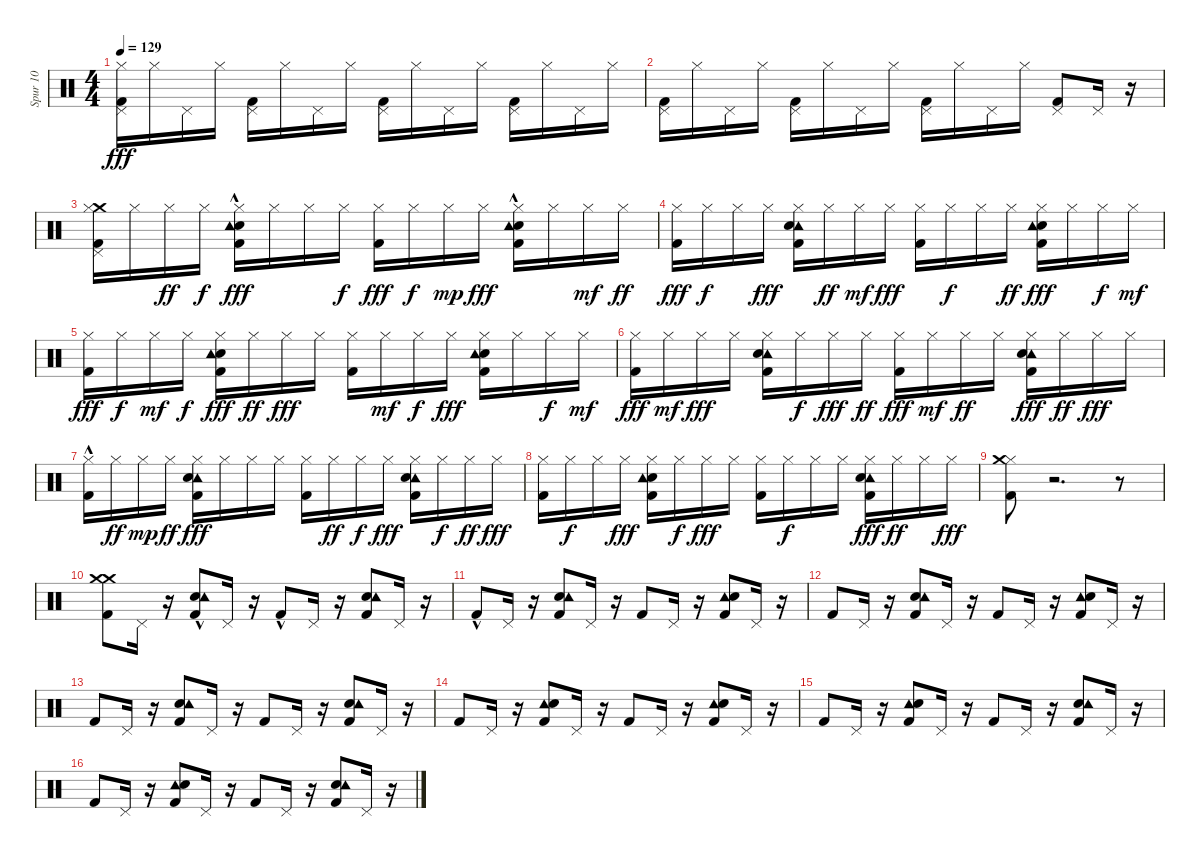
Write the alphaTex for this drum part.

\track ("Spur 10" "Spur 10") {instrument percussion}
\staff {score}
\articulation defaults
\ts (4 4)
\tempo 129
\clef neutral
\ks c
("Hi-Hat (closed)" "Pedal Hi-Hat (hit)" "Kick (hit) 2").16{dy fff} "Hi-Hat (closed)".16 "Pedal Hi-Hat (hit)".16 "Hi-Hat (closed)".16 ("Kick (hit) 2" "Pedal Hi-Hat (hit)").16 "Hi-Hat (closed)".16 "Pedal Hi-Hat (hit)".16 "Hi-Hat (closed)".16 ("Pedal Hi-Hat (hit)" "Kick (hit) 2").16 "Hi-Hat (closed)".16 "Pedal Hi-Hat (hit)".16 "Hi-Hat (closed)".16 ("Pedal Hi-Hat (hit)" "Kick (hit) 2").16 "Hi-Hat (closed)".16 "Pedal Hi-Hat (hit)".16 "Hi-Hat (closed)".16 |
("Pedal Hi-Hat (hit)" "Kick (hit) 2").16 "Hi-Hat (closed)".16 "Pedal Hi-Hat (hit)".16 "Hi-Hat (closed)".16 ("Pedal Hi-Hat (hit)" "Kick (hit) 2").16 "Hi-Hat (closed)".16 "Pedal Hi-Hat (hit)".16 "Hi-Hat (closed)".16 ("Pedal Hi-Hat (hit)" "Kick (hit) 2").16 "Hi-Hat (closed)".16 "Pedal Hi-Hat (hit)".16 "Hi-Hat (closed)".16 ("Kick (hit) 2" "Pedal Hi-Hat (hit)").8 "Pedal Hi-Hat (hit)".16 r.16 |
("Crash medium (hit)" "Kick (hit) 2" "Pedal Hi-Hat (hit)" "Hi-Hat (closed)").16 "Hi-Hat (closed)".16 "Hi-Hat (closed)".16{dy ff} "Hi-Hat (closed)".16{dy f} ("Electric Snare (hit)" "Hi-Hat (closed)" "Kick (hit) 2"{hac} "Tambourine (hit)").16{dy fff} "Hi-Hat (closed)".16 "Hi-Hat (closed)".16 "Hi-Hat (closed)".16{dy f} ("Kick (hit) 2" "Hi-Hat (closed)").16{dy fff} "Hi-Hat (closed)".16{dy f} "Hi-Hat (closed)".16{dy mp} "Hi-Hat (closed)".16{dy fff} ("Kick (hit) 2" "Electric Snare (hit)"{hac} "Hi-Hat (closed)" "Tambourine (hit)").16 "Hi-Hat (closed)".16 "Hi-Hat (closed)".16{dy mf} "Hi-Hat (closed)".16{dy ff} |
("Hi-Hat (closed)" "Kick (hit) 2").16{dy fff} "Hi-Hat (closed)".16{dy f} "Hi-Hat (closed)".16 "Hi-Hat (closed)".16{dy fff} ("Tambourine (hit)" "Electric Snare (hit)" "Hi-Hat (closed)" "Kick (hit) 2").16 "Hi-Hat (closed)".16{dy ff} "Hi-Hat (closed)".16{dy mf} "Hi-Hat (closed)".16{dy fff} ("Kick (hit) 2" "Hi-Hat (closed)").16 "Hi-Hat (closed)".16{dy f} "Hi-Hat (closed)".16 "Hi-Hat (closed)".16{dy ff} ("Kick (hit) 2" "Electric Snare (hit)" "Tambourine (hit)" "Hi-Hat (closed)").16{dy fff} "Hi-Hat (closed)".16 "Hi-Hat (closed)".16{dy f} "Hi-Hat (closed)".16{dy mf} |
("Kick (hit) 2" "Hi-Hat (closed)").16{dy fff} "Hi-Hat (closed)".16{dy f} "Hi-Hat (closed)".16{dy mf} "Hi-Hat (closed)".16{dy f} ("Electric Snare (hit)" "Kick (hit) 2" "Hi-Hat (closed)" "Tambourine (hit)").16{dy fff} "Hi-Hat (closed)".16{dy ff} "Hi-Hat (closed)".16{dy fff} "Hi-Hat (closed)".16 ("Hi-Hat (closed)" "Kick (hit) 2").16 "Hi-Hat (closed)".16{dy mf} "Hi-Hat (closed)".16{dy f} "Hi-Hat (closed)".16{dy fff} ("Kick (hit) 2" "Electric Snare (hit)" "Tambourine (hit)" "Hi-Hat (closed)").16 "Hi-Hat (closed)".16 "Hi-Hat (closed)".16{dy f} "Hi-Hat (closed)".16{dy mf} |
("Hi-Hat (closed)" "Kick (hit) 2").16{dy fff} "Hi-Hat (closed)".16{dy mf} "Hi-Hat (closed)".16{dy fff} "Hi-Hat (closed)".16 ("Kick (hit) 2" "Hi-Hat (closed)" "Tambourine (hit)" "Electric Snare (hit)").16 "Hi-Hat (closed)".16{dy f} "Hi-Hat (closed)".16{dy fff} "Hi-Hat (closed)".16{dy ff} ("Kick (hit) 2" "Hi-Hat (closed)").16{dy fff} "Hi-Hat (closed)".16{dy mf} "Hi-Hat (closed)".16{dy ff} "Hi-Hat (closed)".16 ("Tambourine (hit)" "Kick (hit) 2" "Electric Snare (hit)" "Hi-Hat (closed)").16{dy fff} "Hi-Hat (closed)".16{dy ff} "Hi-Hat (closed)".16{dy fff} "Hi-Hat (closed)".16 |
("Hi-Hat (closed)" "Kick (hit) 2"{hac}).16 "Hi-Hat (closed)".16{dy ff} "Hi-Hat (closed)".16{dy mp} "Hi-Hat (closed)".16{dy ff} ("Hi-Hat (closed)" "Tambourine (hit)" "Electric Snare (hit)" "Kick (hit) 2").16{dy fff} "Hi-Hat (closed)".16 "Hi-Hat (closed)".16 "Hi-Hat (closed)".16 ("Hi-Hat (closed)" "Kick (hit) 2").16 "Hi-Hat (closed)".16{dy ff} "Hi-Hat (closed)".16{dy f} "Hi-Hat (closed)".16{dy fff} ("Tambourine (hit)" "Electric Snare (hit)" "Kick (hit) 2" "Hi-Hat (closed)").16 "Hi-Hat (closed)".16{dy f} "Hi-Hat (closed)".16{dy ff} "Hi-Hat (closed)".16{dy fff} |
("Kick (hit) 2" "Hi-Hat (closed)").16 "Hi-Hat (closed)".16{dy f} "Hi-Hat (closed)".16 "Hi-Hat (closed)".16{dy fff} ("Electric Snare (hit)" "Kick (hit) 2" "Hi-Hat (closed)" "Tambourine (hit)").16 "Hi-Hat (closed)".16{dy f} "Hi-Hat (closed)".16{dy fff} "Hi-Hat (closed)".16 ("Kick (hit) 2" "Hi-Hat (closed)").16 "Hi-Hat (closed)".16{dy f} "Hi-Hat (closed)".16 "Hi-Hat (closed)".16 ("Tambourine (hit)" "Hi-Hat (closed)" "Kick (hit) 2" "Electric Snare (hit)").16{dy fff} "Hi-Hat (closed)".16{dy ff} "Hi-Hat (closed)".16 "Hi-Hat (closed)".16{dy fff} |
("Hi-Hat (closed)" "Kick (hit) 2" "Crash medium (hit)").8 r.2{d} r.8 |
("Crash medium (hit)" "Kick (hit) 2" "Crash medium (hit)").8 "Pedal Hi-Hat (hit)".16 r.16 ("Electric Snare (hit)" "Tambourine (hit)" "Kick (hit) 2"{hac}).8 "Pedal Hi-Hat (hit)".16 r.16 "Kick (hit) 2"{hac}.8 "Pedal Hi-Hat (hit)".16 r.16 ("Kick (hit) 2" "Electric Snare (hit)" "Tambourine (hit)").8 "Pedal Hi-Hat (hit)".16 r.16 |
"Kick (hit) 2"{hac}.8 "Pedal Hi-Hat (hit)".16 r.16 ("Electric Snare (hit)" "Tambourine (hit)" "Kick (hit) 2").8 "Pedal Hi-Hat (hit)".16 r.16 "Kick (hit) 2".8 "Pedal Hi-Hat (hit)".16 r.16 ("Kick (hit) 2" "Tambourine (hit)" "Electric Snare (hit)").8 "Pedal Hi-Hat (hit)".16 r.16 |
"Kick (hit) 2".8 "Pedal Hi-Hat (hit)".16 r.16 ("Electric Snare (hit)" "Kick (hit) 2" "Tambourine (hit)").8 "Pedal Hi-Hat (hit)".16 r.16 "Kick (hit) 2".8 "Pedal Hi-Hat (hit)".16 r.16 ("Tambourine (hit)" "Kick (hit) 2" "Electric Snare (hit)").8 "Pedal Hi-Hat (hit)".16 r.16 |
"Kick (hit) 2".8 "Pedal Hi-Hat (hit)".16 r.16 ("Electric Snare (hit)" "Kick (hit) 2" "Tambourine (hit)").8 "Pedal Hi-Hat (hit)".16 r.16 "Kick (hit) 2".8 "Pedal Hi-Hat (hit)".16 r.16 ("Electric Snare (hit)" "Tambourine (hit)" "Kick (hit) 2").8 "Pedal Hi-Hat (hit)".16 r.16 |
"Kick (hit) 2".8 "Pedal Hi-Hat (hit)".16 r.16 ("Kick (hit) 2" "Tambourine (hit)" "Electric Snare (hit)").8 "Pedal Hi-Hat (hit)".16 r.16 "Kick (hit) 2".8 "Pedal Hi-Hat (hit)".16 r.16 ("Kick (hit) 2" "Tambourine (hit)" "Electric Snare (hit)").8 "Pedal Hi-Hat (hit)".16 r.16 |
"Kick (hit) 2".8 "Pedal Hi-Hat (hit)".16 r.16 ("Tambourine (hit)" "Electric Snare (hit)" "Kick (hit) 2").8 "Pedal Hi-Hat (hit)".16 r.16 "Kick (hit) 2".8 "Pedal Hi-Hat (hit)".16 r.16 ("Electric Snare (hit)" "Tambourine (hit)" "Kick (hit) 2").8 "Pedal Hi-Hat (hit)".16 r.16 |
"Kick (hit) 2".8 "Pedal Hi-Hat (hit)".16 r.16 ("Tambourine (hit)" "Kick (hit) 2" "Electric Snare (hit)").8 "Pedal Hi-Hat (hit)".16 r.16 "Kick (hit) 2".8 "Pedal Hi-Hat (hit)".16 r.16 ("Electric Snare (hit)" "Tambourine (hit)" "Kick (hit) 2").8 "Pedal Hi-Hat (hit)".16 r.16
